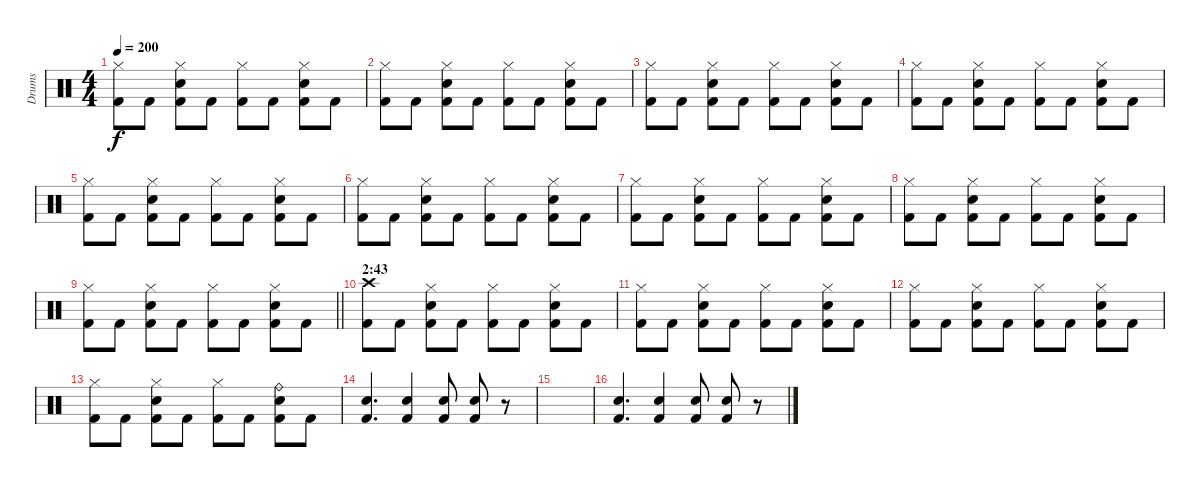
\track ("Drums" "Drums") {instrument percussion}
\staff {score}
\articulation defaults
\ts (4 4)
\tempo 200
\clef neutral
\ks c
("Hi-Hat (closed)" "Kick (hit) 2").8{dy f} "Kick (hit) 2".8 ("Hi-Hat (closed)" "Snare (hit) 2" "Kick (hit) 2").8 "Kick (hit) 2".8 ("Hi-Hat (closed)" "Kick (hit) 2").8 "Kick (hit) 2".8 ("Hi-Hat (closed)" "Snare (hit) 2" "Kick (hit) 2").8 "Kick (hit) 2".8 |
("Hi-Hat (closed)" "Kick (hit) 2").8 "Kick (hit) 2".8 ("Hi-Hat (closed)" "Snare (hit) 2" "Kick (hit) 2").8 "Kick (hit) 2".8 ("Hi-Hat (closed)" "Kick (hit) 2").8 "Kick (hit) 2".8 ("Hi-Hat (closed)" "Snare (hit) 2" "Kick (hit) 2").8 "Kick (hit) 2".8 |
("Hi-Hat (closed)" "Kick (hit) 2").8 "Kick (hit) 2".8 ("Hi-Hat (closed)" "Snare (hit) 2" "Kick (hit) 2").8 "Kick (hit) 2".8 ("Hi-Hat (closed)" "Kick (hit) 2").8 "Kick (hit) 2".8 ("Hi-Hat (closed)" "Snare (hit) 2" "Kick (hit) 2").8 "Kick (hit) 2".8 |
("Hi-Hat (closed)" "Kick (hit) 2").8 "Kick (hit) 2".8 ("Hi-Hat (closed)" "Snare (hit) 2" "Kick (hit) 2").8 "Kick (hit) 2".8 ("Hi-Hat (closed)" "Kick (hit) 2").8 "Kick (hit) 2".8 ("Hi-Hat (closed)" "Snare (hit) 2" "Kick (hit) 2").8 "Kick (hit) 2".8 |
("Hi-Hat (closed)" "Kick (hit) 2").8 "Kick (hit) 2".8 ("Hi-Hat (closed)" "Snare (hit) 2" "Kick (hit) 2").8 "Kick (hit) 2".8 ("Hi-Hat (closed)" "Kick (hit) 2").8 "Kick (hit) 2".8 ("Hi-Hat (closed)" "Snare (hit) 2" "Kick (hit) 2").8 "Kick (hit) 2".8 |
("Hi-Hat (closed)" "Kick (hit) 2").8 "Kick (hit) 2".8 ("Hi-Hat (closed)" "Snare (hit) 2" "Kick (hit) 2").8 "Kick (hit) 2".8 ("Hi-Hat (closed)" "Kick (hit) 2").8 "Kick (hit) 2".8 ("Hi-Hat (closed)" "Snare (hit) 2" "Kick (hit) 2").8 "Kick (hit) 2".8 |
("Hi-Hat (closed)" "Kick (hit) 2").8 "Kick (hit) 2".8 ("Hi-Hat (closed)" "Snare (hit) 2" "Kick (hit) 2").8 "Kick (hit) 2".8 ("Hi-Hat (closed)" "Kick (hit) 2").8 "Kick (hit) 2".8 ("Hi-Hat (closed)" "Snare (hit) 2" "Kick (hit) 2").8 "Kick (hit) 2".8 |
("Hi-Hat (closed)" "Kick (hit) 2").8 "Kick (hit) 2".8 ("Hi-Hat (closed)" "Snare (hit) 2" "Kick (hit) 2").8 "Kick (hit) 2".8 ("Hi-Hat (closed)" "Kick (hit) 2").8 "Kick (hit) 2".8 ("Hi-Hat (closed)" "Snare (hit) 2" "Kick (hit) 2").8 "Kick (hit) 2".8 |
\barLineRight lightlight
("Hi-Hat (closed)" "Kick (hit) 2").8 "Kick (hit) 2".8 ("Hi-Hat (closed)" "Snare (hit) 2" "Kick (hit) 2").8 "Kick (hit) 2".8 ("Hi-Hat (closed)" "Kick (hit) 2").8 "Kick (hit) 2".8 ("Hi-Hat (closed)" "Snare (hit) 2" "Kick (hit) 2").8 "Kick (hit) 2".8 |
\section ("" "2:43")
("Crash high (hit)" "Kick (hit) 2").8 "Kick (hit) 2".8 ("Hi-Hat (closed)" "Snare (hit) 2" "Kick (hit) 2").8 "Kick (hit) 2".8 ("Hi-Hat (closed)" "Kick (hit) 2").8 "Kick (hit) 2".8 ("Hi-Hat (closed)" "Snare (hit) 2" "Kick (hit) 2").8 "Kick (hit) 2".8 |
("Hi-Hat (closed)" "Kick (hit) 2").8 "Kick (hit) 2".8 ("Hi-Hat (closed)" "Snare (hit) 2" "Kick (hit) 2").8 "Kick (hit) 2".8 ("Hi-Hat (closed)" "Kick (hit) 2").8 "Kick (hit) 2".8 ("Hi-Hat (closed)" "Snare (hit) 2" "Kick (hit) 2").8 "Kick (hit) 2".8 |
("Hi-Hat (closed)" "Kick (hit) 2").8 "Kick (hit) 2".8 ("Hi-Hat (closed)" "Snare (hit) 2" "Kick (hit) 2").8 "Kick (hit) 2".8 ("Hi-Hat (closed)" "Kick (hit) 2").8 "Kick (hit) 2".8 ("Hi-Hat (closed)" "Snare (hit) 2" "Kick (hit) 2").8 "Kick (hit) 2".8 |
("Hi-Hat (closed)" "Kick (hit) 2").8 "Kick (hit) 2".8 ("Hi-Hat (closed)" "Snare (hit) 2" "Kick (hit) 2").8 "Kick (hit) 2".8 ("Hi-Hat (closed)" "Kick (hit) 2").8 "Kick (hit) 2".8 ("Ride (bell)" "Snare (hit) 2" "Kick (hit) 2").8 "Kick (hit) 2".8 |
("Snare (hit) 2" "Kick (hit) 2").4{d} ("Snare (hit) 2" "Kick (hit) 2").4 ("Snare (hit) 2" "Kick (hit) 2").8 ("Snare (hit) 2" "Kick (hit) 2").8 r.8 |
|
("Snare (hit) 2" "Kick (hit) 2").4{d} ("Snare (hit) 2" "Kick (hit) 2").4 ("Snare (hit) 2" "Kick (hit) 2").8 ("Snare (hit) 2" "Kick (hit) 2").8 r.8
